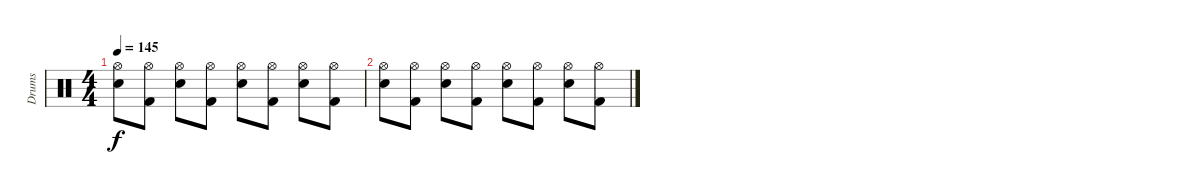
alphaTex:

\track ("Drums" "Drums") {instrument percussion}
\staff {score}
\articulation defaults
\ts (4 4)
\tempo 145
\clef neutral
\ks c
("Hi-Hat (open)" "Electric Snare (hit)").8{dy f} ("Hi-Hat (open)" "Kick (hit) 2").8 ("Hi-Hat (open)" "Electric Snare (hit)").8 ("Hi-Hat (open)" "Kick (hit) 2").8 ("Hi-Hat (open)" "Electric Snare (hit)").8 ("Hi-Hat (open)" "Kick (hit) 2").8 ("Hi-Hat (open)" "Electric Snare (hit)").8 ("Hi-Hat (open)" "Kick (hit) 2").8 |
("Hi-Hat (open)" "Electric Snare (hit)").8 ("Hi-Hat (open)" "Kick (hit) 2").8 ("Hi-Hat (open)" "Electric Snare (hit)").8 ("Hi-Hat (open)" "Kick (hit) 2").8 ("Hi-Hat (open)" "Electric Snare (hit)").8 ("Hi-Hat (open)" "Kick (hit) 2").8 ("Hi-Hat (open)" "Electric Snare (hit)").8 ("Hi-Hat (open)" "Kick (hit) 2").8
